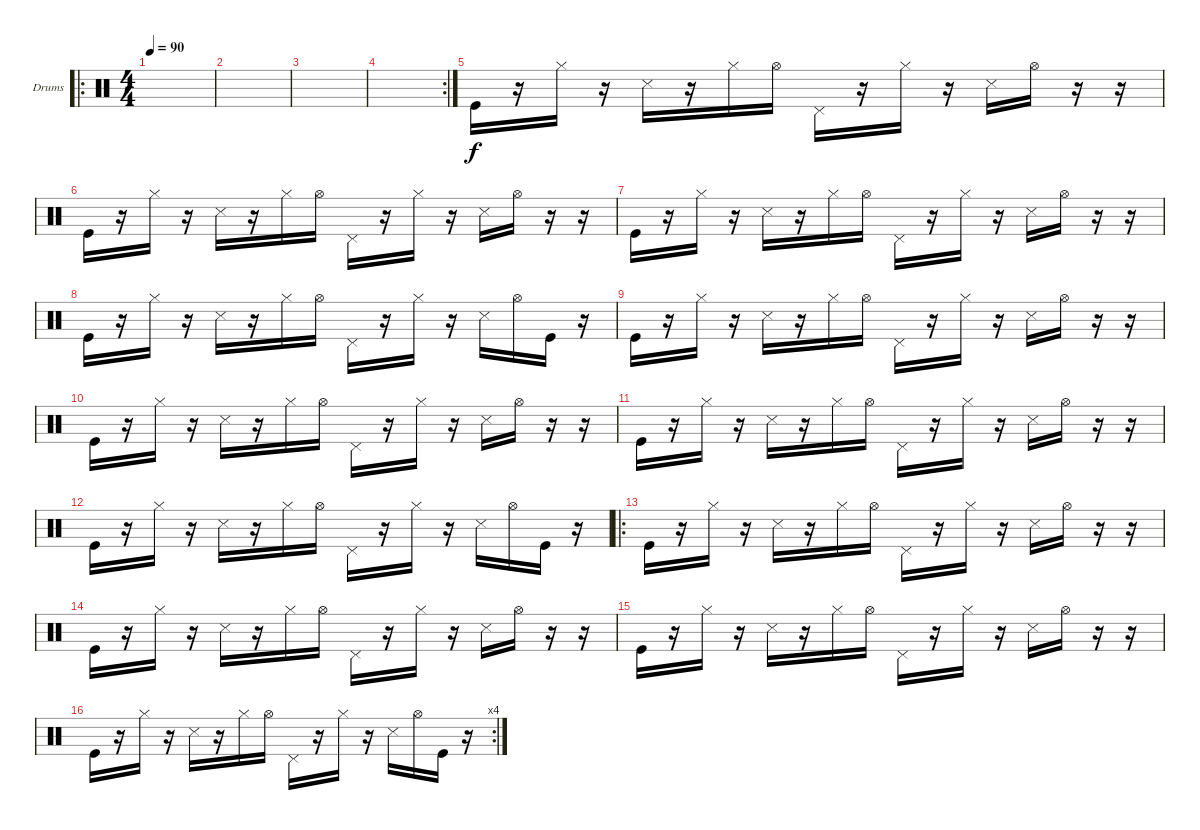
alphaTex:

\defaultSystemsLayout 4
\bracketExtendMode groupsimilarinstruments
\firstSystemTrackNameOrientation horizontal
\otherSystemsTrackNameOrientation horizontal
\track ("Drumkit" "Drums") {instrument percussion}
\staff {score}
\articulation defaults
\ro
\ts (4 4)
\tempo 90
\clef neutral
\scale
0.5
\ks c
|
\scale
0.25 |
\scale
0.25 |
\rc 2
\scale
0.355932 |
\scale
0.322034 "Kick (hit)".16 r.16 "Hi-Hat (closed)".16 r.16 "Snare (side stick) 3".16 r.16 "Hi-Hat (closed)".16 "Hi-Hat (open)".16 "Pedal Hi-Hat (hit)".16 r.16 "Hi-Hat (closed)".16 r.16 "Snare (side stick) 3".16 "Hi-Hat (open)".16 r.16 r.16 |
\scale
0.322034 "Kick (hit)".16 r.16 "Hi-Hat (closed)".16 r.16 "Snare (side stick) 3".16 r.16 "Hi-Hat (closed)".16 "Hi-Hat (open)".16 "Pedal Hi-Hat (hit)".16 r.16 "Hi-Hat (closed)".16 r.16 "Snare (side stick) 3".16 "Hi-Hat (open)".16 r.16 r.16 |
\scale
0.333333 "Kick (hit)".16 r.16 "Hi-Hat (closed)".16 r.16 "Snare (side stick) 3".16 r.16 "Hi-Hat (closed)".16 "Hi-Hat (open)".16 "Pedal Hi-Hat (hit)".16 r.16 "Hi-Hat (closed)".16 r.16 "Snare (side stick) 3".16 "Hi-Hat (open)".16 r.16 r.16 |
\scale
0.333333 "Kick (hit)".16 r.16 "Hi-Hat (closed)".16 r.16 "Snare (side stick) 3".16 r.16 "Hi-Hat (closed)".16 "Hi-Hat (open)".16 "Pedal Hi-Hat (hit)".16 r.16 "Hi-Hat (closed)".16 r.16 "Snare (side stick) 3".16 "Hi-Hat (open)".16 "Kick (hit)".16 r.16 |
\scale
0.333333 "Kick (hit)".16 r.16 "Hi-Hat (closed)".16 r.16 "Snare (side stick) 3".16 r.16 "Hi-Hat (closed)".16 "Hi-Hat (open)".16 "Pedal Hi-Hat (hit)".16 r.16 "Hi-Hat (closed)".16 r.16 "Snare (side stick) 3".16 "Hi-Hat (open)".16 r.16 r.16 |
\scale
0.333333 "Kick (hit)".16 r.16 "Hi-Hat (closed)".16 r.16 "Snare (side stick) 3".16 r.16 "Hi-Hat (closed)".16 "Hi-Hat (open)".16 "Pedal Hi-Hat (hit)".16 r.16 "Hi-Hat (closed)".16 r.16 "Snare (side stick) 3".16 "Hi-Hat (open)".16 r.16 r.16 |
\scale
0.333333 "Kick (hit)".16 r.16 "Hi-Hat (closed)".16 r.16 "Snare (side stick) 3".16 r.16 "Hi-Hat (closed)".16 "Hi-Hat (open)".16 "Pedal Hi-Hat (hit)".16 r.16 "Hi-Hat (closed)".16 r.16 "Snare (side stick) 3".16 "Hi-Hat (open)".16 r.16 r.16 |
\scale
0.333333 "Kick (hit)".16 r.16 "Hi-Hat (closed)".16 r.16 "Snare (side stick) 3".16 r.16 "Hi-Hat (closed)".16 "Hi-Hat (open)".16 "Pedal Hi-Hat (hit)".16 r.16 "Hi-Hat (closed)".16 r.16 "Snare (side stick) 3".16 "Hi-Hat (open)".16 "Kick (hit)".16 r.16 |
\ro
\scale
0.377049 "Kick (hit)".16 r.16 "Hi-Hat (closed)".16 r.16 "Snare (side stick) 3".16 r.16 "Hi-Hat (closed)".16 "Hi-Hat (open)".16 "Pedal Hi-Hat (hit)".16 r.16 "Hi-Hat (closed)".16 r.16 "Snare (side stick) 3".16 "Hi-Hat (open)".16 r.16 r.16 |
\scale
0.311475 "Kick (hit)".16 r.16 "Hi-Hat (closed)".16 r.16 "Snare (side stick) 3".16 r.16 "Hi-Hat (closed)".16 "Hi-Hat (open)".16 "Pedal Hi-Hat (hit)".16 r.16 "Hi-Hat (closed)".16 r.16 "Snare (side stick) 3".16 "Hi-Hat (open)".16 r.16 r.16 |
\scale
0.311475 "Kick (hit)".16 r.16 "Hi-Hat (closed)".16 r.16 "Snare (side stick) 3".16 r.16 "Hi-Hat (closed)".16 "Hi-Hat (open)".16 "Pedal Hi-Hat (hit)".16 r.16 "Hi-Hat (closed)".16 r.16 "Snare (side stick) 3".16 "Hi-Hat (open)".16 r.16 r.16 |
\rc 4 "Kick (hit)".16
r.16 "Hi-Hat (closed)".16 r.16 "Snare (side stick) 3".16 r.16 "Hi-Hat (closed)".16 "Hi-Hat (open)".16 "Pedal Hi-Hat (hit)".16 r.16 "Hi-Hat (closed)".16 r.16 "Snare (side stick) 3".16 "Hi-Hat (open)".16 "Kick (hit)".16 r.16
